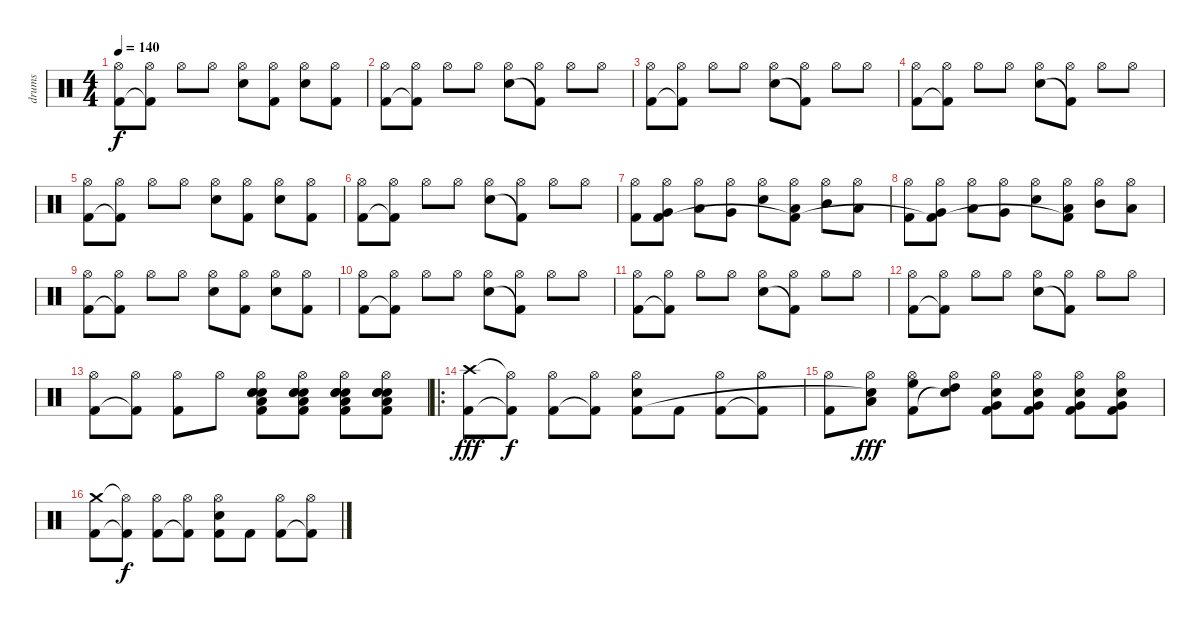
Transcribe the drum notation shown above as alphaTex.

\track ("drums" "drums") {instrument percussion}
\staff {score}
\articulation defaults
\ts (4 4)
\tempo 140
\clef neutral
\ks c
("Hi-Hat (open)" "Kick (hit) 2").8{dy f} ("Hi-Hat (open)" "Kick (hit) 2"{t}).8 "Hi-Hat (open)".8 "Hi-Hat (open)".8 ("Hi-Hat (open)" "Snare (hit) 2").8 ("Hi-Hat (open)" "Kick (hit) 2").8 ("Hi-Hat (open)" "Snare (hit) 2").8 ("Hi-Hat (open)" "Kick (hit) 2").8 |
("Hi-Hat (open)" "Kick (hit) 2").8 ("Hi-Hat (open)" "Kick (hit) 2"{t}).8 "Hi-Hat (open)".8 "Hi-Hat (open)".8 ("Hi-Hat (open)" "Snare (hit) 2").8 ("Hi-Hat (open)" "Kick (hit) 2"{t}).8 "Hi-Hat (open)".8 "Hi-Hat (open)".8 |
("Hi-Hat (open)" "Kick (hit) 2").8 ("Hi-Hat (open)" "Kick (hit) 2"{t}).8 "Hi-Hat (open)".8 "Hi-Hat (open)".8 ("Hi-Hat (open)" "Snare (hit) 2").8 ("Hi-Hat (open)" "Kick (hit) 2"{t}).8 "Hi-Hat (open)".8 "Hi-Hat (open)".8 |
("Hi-Hat (open)" "Kick (hit) 2").8 ("Hi-Hat (open)" "Kick (hit) 2"{t}).8 "Hi-Hat (open)".8 "Hi-Hat (open)".8 ("Hi-Hat (open)" "Snare (hit) 2").8 ("Hi-Hat (open)" "Kick (hit) 2"{t}).8 "Hi-Hat (open)".8 "Hi-Hat (open)".8 |
("Hi-Hat (open)" "Kick (hit) 2").8 ("Hi-Hat (open)" "Kick (hit) 2"{t}).8 "Hi-Hat (open)".8 "Hi-Hat (open)".8 ("Hi-Hat (open)" "Snare (hit) 2").8 ("Hi-Hat (open)" "Kick (hit) 2").8 ("Hi-Hat (open)" "Snare (hit) 2").8 ("Hi-Hat (open)" "Kick (hit) 2").8 |
("Hi-Hat (open)" "Kick (hit) 2").8 ("Hi-Hat (open)" "Kick (hit) 2"{t}).8 "Hi-Hat (open)".8 "Hi-Hat (open)".8 ("Hi-Hat (open)" "Snare (hit) 2").8 ("Hi-Hat (open)" "Kick (hit) 2"{t}).8 "Hi-Hat (open)".8 "Hi-Hat (open)".8 |
("Hi-Hat (open)" "Kick (hit) 2").8 ("Hi-Hat (open)" "Very Low Tom (hit)" "Kick (hit) 2").8 ("Hi-Hat (open)" "Low Tom (hit)").8 ("Hi-Hat (open)" "Very Low Tom (hit)").8 ("Hi-Hat (open)" "Snare (hit) 2").8 ("Hi-Hat (open)" "Low Tom (hit)" "Kick (hit) 2"{t}).8 ("Hi-Hat (open)" "Mid Tom (hit)").8 ("Hi-Hat (open)" "Low Tom (hit)").8 |
("Hi-Hat (open)" "Kick (hit) 2").8 ("Hi-Hat (open)" "Very Low Tom (hit)" "Kick (hit) 2"{t}).8 ("Hi-Hat (open)" "Low Tom (hit)").8 ("Hi-Hat (open)" "Very Low Tom (hit)").8 ("Hi-Hat (open)" "Snare (hit) 2").8 ("Hi-Hat (open)" "Low Tom (hit)" "Kick (hit) 2"{t}).8 ("Hi-Hat (open)" "Mid Tom (hit)").8 ("Hi-Hat (open)" "Low Tom (hit)").8 |
("Hi-Hat (open)" "Kick (hit) 2").8 ("Hi-Hat (open)" "Kick (hit) 2"{t}).8 "Hi-Hat (open)".8 "Hi-Hat (open)".8 ("Hi-Hat (open)" "Snare (hit) 2").8 ("Hi-Hat (open)" "Kick (hit) 2").8 ("Hi-Hat (open)" "Snare (hit) 2").8 ("Hi-Hat (open)" "Kick (hit) 2").8 |
("Hi-Hat (open)" "Kick (hit) 2").8 ("Hi-Hat (open)" "Kick (hit) 2"{t}).8 "Hi-Hat (open)".8 "Hi-Hat (open)".8 ("Hi-Hat (open)" "Snare (hit) 2").8 ("Hi-Hat (open)" "Kick (hit) 2"{t}).8 "Hi-Hat (open)".8 "Hi-Hat (open)".8 |
("Hi-Hat (open)" "Kick (hit) 2").8 ("Hi-Hat (open)" "Kick (hit) 2"{t}).8 "Hi-Hat (open)".8 "Hi-Hat (open)".8 ("Hi-Hat (open)" "Snare (hit) 2").8 ("Hi-Hat (open)" "Kick (hit) 2"{t}).8 "Hi-Hat (open)".8 "Hi-Hat (open)".8 |
("Hi-Hat (open)" "Kick (hit) 2").8 ("Hi-Hat (open)" "Kick (hit) 2"{t}).8 "Hi-Hat (open)".8 "Hi-Hat (open)".8 ("Hi-Hat (open)" "Snare (hit) 2").8 ("Hi-Hat (open)" "Kick (hit) 2"{t}).8 "Hi-Hat (open)".8 "Hi-Hat (open)".8 |
("Hi-Hat (open)" "Kick (hit) 2").8 ("Hi-Hat (open)" "Kick (hit) 2"{t}).8 ("Hi-Hat (open)" "Kick (hit) 2").8 "Hi-Hat (open)".8 ("Hi-Hat (open)" "Electric Snare (hit)" "Low Floor Tom (hit)" "Electric Snare (hit)" "Kick (hit) 2" "Snare (hit) 2").8{volume 13} ("Hi-Hat (open)" "Electric Snare (hit)" "Low Floor Tom (hit)" "Electric Snare (hit)" "Kick (hit) 2" "Snare (hit) 2").8 ("Hi-Hat (open)" "Electric Snare (hit)" "Low Floor Tom (hit)" "Electric Snare (hit)" "Kick (hit) 2" "Snare (hit) 2").8 ("Hi-Hat (open)" "Electric Snare (hit)" "Low Floor Tom (hit)" "Electric Snare (hit)" "Kick (hit) 2" "Snare (hit) 2").8 |
\ro
("Crash high (hit)" "Kick (hit) 2").8{dy fff} ("Hi-Hat (open)"{t} "Kick (hit) 2"{t}).8{dy f} ("Hi-Hat (open)" "Kick (hit) 2").8 ("Hi-Hat (open)" "Kick (hit) 2"{t}).8 ("Hi-Hat (open)" "Electric Snare (hit)" "Kick (hit) 2").8 "Kick (hit) 2".8 ("Hi-Hat (open)" "Kick (hit) 2").8 ("Hi-Hat (open)" "Kick (hit) 2"{t}).8 |
("Hi-Hat (open)" "Kick (hit) 2").8 ("Hi-Hat (open)" "Low Tom (hit)" "Snare (hit)"{t}).8{dy fff} ("Hi-Hat (open)" "High Floor Tom (hit)" "Kick (hit) 2").8 ("Hi-Hat (open)" "High Tom (hit)" "Snare (hit)"{t}).8 ("Hi-Hat (open)" "Very Low Tom (hit)" "Electric Snare (hit)" "Kick (hit) 2").8 ("Hi-Hat (open)" "Very Low Tom (hit)" "Electric Snare (hit)" "Kick (hit) 2").8 ("Hi-Hat (open)" "Very Low Tom (hit)" "Electric Snare (hit)" "Kick (hit) 2").8 ("Hi-Hat (open)" "Very Low Tom (hit)" "Electric Snare (hit)" "Kick (hit) 2").8 |
("Crash medium (hit)" "Kick (hit) 2").8 ("Hi-Hat (open)"{t} "Kick (hit) 2"{t}).8{dy f} ("Hi-Hat (open)" "Kick (hit) 2").8 ("Hi-Hat (open)" "Kick (hit) 2"{t}).8 ("Hi-Hat (open)" "Electric Snare (hit)" "Kick (hit) 2").8 "Kick (hit) 2".8 ("Hi-Hat (open)" "Kick (hit) 2").8 ("Hi-Hat (open)" "Kick (hit) 2"{t}).8
